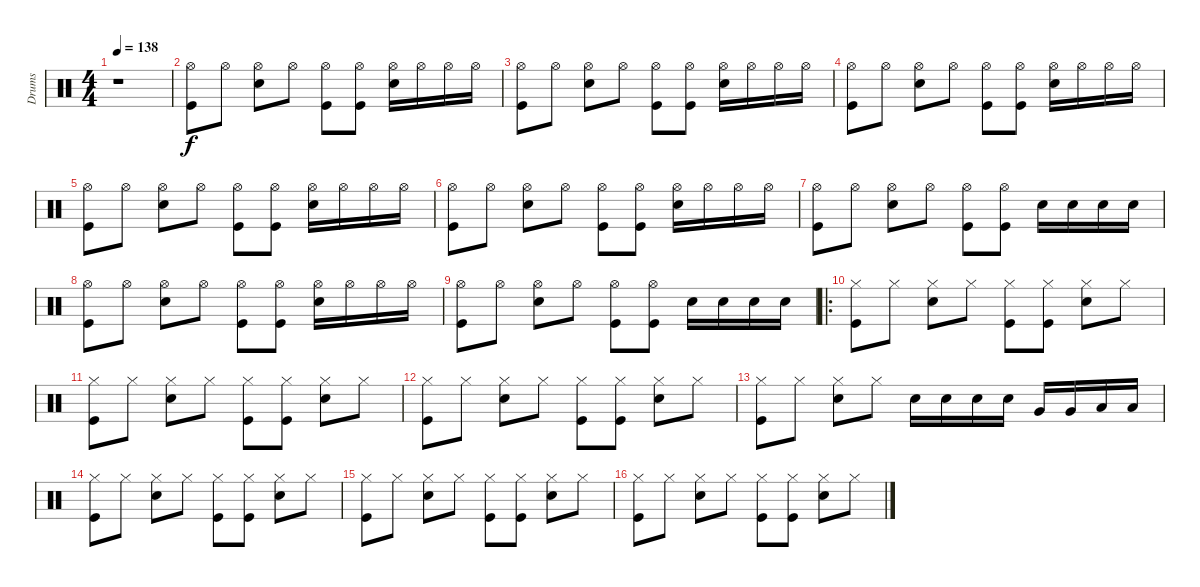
\track ("Drums" "Drums") {instrument percussion}
\staff {score}
\articulation defaults
\ts (4 4)
\tempo 138
\clef neutral
\ks c
r.1{dy f} |
("Hi-Hat (open)" "Kick (hit)").8 "Hi-Hat (open)".8 ("Hi-Hat (open)" "Snare (hit) 2").8 "Hi-Hat (open)".8 ("Hi-Hat (open)" "Kick (hit)").8 ("Hi-Hat (open)" "Kick (hit)").8 ("Hi-Hat (open)" "Snare (hit) 2").16 "Hi-Hat (open)".16 "Hi-Hat (open)".16 "Hi-Hat (open)".16 |
("Hi-Hat (open)" "Kick (hit)").8 "Hi-Hat (open)".8 ("Hi-Hat (open)" "Snare (hit) 2").8 "Hi-Hat (open)".8 ("Hi-Hat (open)" "Kick (hit)").8 ("Hi-Hat (open)" "Kick (hit)").8 ("Hi-Hat (open)" "Snare (hit) 2").16 "Hi-Hat (open)".16 "Hi-Hat (open)".16 "Hi-Hat (open)".16 |
("Hi-Hat (open)" "Kick (hit)").8 "Hi-Hat (open)".8 ("Hi-Hat (open)" "Snare (hit) 2").8 "Hi-Hat (open)".8 ("Hi-Hat (open)" "Kick (hit)").8 ("Hi-Hat (open)" "Kick (hit)").8 ("Hi-Hat (open)" "Snare (hit) 2").16 "Hi-Hat (open)".16 "Hi-Hat (open)".16 "Hi-Hat (open)".16 |
("Hi-Hat (open)" "Kick (hit)").8 "Hi-Hat (open)".8 ("Hi-Hat (open)" "Snare (hit) 2").8 "Hi-Hat (open)".8 ("Hi-Hat (open)" "Kick (hit)").8 ("Hi-Hat (open)" "Kick (hit)").8 ("Hi-Hat (open)" "Snare (hit) 2").16 "Hi-Hat (open)".16 "Hi-Hat (open)".16 "Hi-Hat (open)".16 |
("Hi-Hat (open)" "Kick (hit)").8 "Hi-Hat (open)".8 ("Hi-Hat (open)" "Snare (hit) 2").8 "Hi-Hat (open)".8 ("Hi-Hat (open)" "Kick (hit)").8 ("Hi-Hat (open)" "Kick (hit)").8 ("Hi-Hat (open)" "Snare (hit) 2").16 "Hi-Hat (open)".16 "Hi-Hat (open)".16 "Hi-Hat (open)".16 |
("Hi-Hat (open)" "Kick (hit)").8 "Hi-Hat (open)".8 ("Hi-Hat (open)" "Snare (hit) 2").8 "Hi-Hat (open)".8 ("Hi-Hat (open)" "Kick (hit)").8 ("Hi-Hat (open)" "Kick (hit)").8 "Snare (hit) 2".16 "Snare (hit) 2".16 "Snare (hit) 2".16 "Snare (hit) 2".16 |
("Hi-Hat (open)" "Kick (hit)").8 "Hi-Hat (open)".8 ("Hi-Hat (open)" "Snare (hit) 2").8 "Hi-Hat (open)".8 ("Hi-Hat (open)" "Kick (hit)").8 ("Hi-Hat (open)" "Kick (hit)").8 ("Hi-Hat (open)" "Snare (hit) 2").16 "Hi-Hat (open)".16 "Hi-Hat (open)".16 "Hi-Hat (open)".16 |
("Hi-Hat (open)" "Kick (hit)").8 "Hi-Hat (open)".8 ("Hi-Hat (open)" "Snare (hit) 2").8 "Hi-Hat (open)".8 ("Hi-Hat (open)" "Kick (hit)").8 ("Hi-Hat (open)" "Kick (hit)").8 "Snare (hit) 2".16 "Snare (hit) 2".16 "Snare (hit) 2".16 "Snare (hit) 2".16 |
\ro
("Hi-Hat (closed)" "Kick (hit)").8 "Hi-Hat (closed)".8 ("Hi-Hat (closed)" "Snare (hit) 2").8 "Hi-Hat (closed)".8 ("Hi-Hat (closed)" "Kick (hit)").8 ("Hi-Hat (closed)" "Kick (hit)").8 ("Hi-Hat (closed)" "Snare (hit) 2").8 "Hi-Hat (closed)".8 |
("Hi-Hat (closed)" "Kick (hit)").8 "Hi-Hat (closed)".8 ("Hi-Hat (closed)" "Snare (hit) 2").8 "Hi-Hat (closed)".8 ("Hi-Hat (closed)" "Kick (hit)").8 ("Hi-Hat (closed)" "Kick (hit)").8 ("Hi-Hat (closed)" "Snare (hit) 2").8 "Hi-Hat (closed)".8 |
("Hi-Hat (closed)" "Kick (hit)").8 "Hi-Hat (closed)".8 ("Hi-Hat (closed)" "Snare (hit) 2").8 "Hi-Hat (closed)".8 ("Hi-Hat (closed)" "Kick (hit)").8 ("Hi-Hat (closed)" "Kick (hit)").8 ("Hi-Hat (closed)" "Snare (hit) 2").8 "Hi-Hat (closed)".8 |
("Hi-Hat (closed)" "Kick (hit)").8 "Hi-Hat (closed)".8 ("Hi-Hat (closed)" "Snare (hit) 2").8 "Hi-Hat (closed)".8 "Snare (hit) 2".16 "Snare (hit) 2".16 "Snare (hit) 2".16 "Snare (hit) 2".16 "Very Low Tom (hit)".16 "Very Low Tom (hit)".16 "Low Tom (hit)".16 "Low Tom (hit)".16 |
("Hi-Hat (closed)" "Kick (hit)").8 "Hi-Hat (closed)".8 ("Hi-Hat (closed)" "Snare (hit) 2").8 "Hi-Hat (closed)".8 ("Hi-Hat (closed)" "Kick (hit)").8 ("Hi-Hat (closed)" "Kick (hit)").8 ("Hi-Hat (closed)" "Snare (hit) 2").8 "Hi-Hat (closed)".8 |
("Hi-Hat (closed)" "Kick (hit)").8 "Hi-Hat (closed)".8 ("Hi-Hat (closed)" "Snare (hit) 2").8 "Hi-Hat (closed)".8 ("Hi-Hat (closed)" "Kick (hit)").8 ("Hi-Hat (closed)" "Kick (hit)").8 ("Hi-Hat (closed)" "Snare (hit) 2").8 "Hi-Hat (closed)".8 |
("Hi-Hat (closed)" "Kick (hit)").8 "Hi-Hat (closed)".8 ("Hi-Hat (closed)" "Snare (hit) 2").8 "Hi-Hat (closed)".8 ("Hi-Hat (closed)" "Kick (hit)").8 ("Hi-Hat (closed)" "Kick (hit)").8 ("Hi-Hat (closed)" "Snare (hit) 2").8 "Hi-Hat (closed)".8
